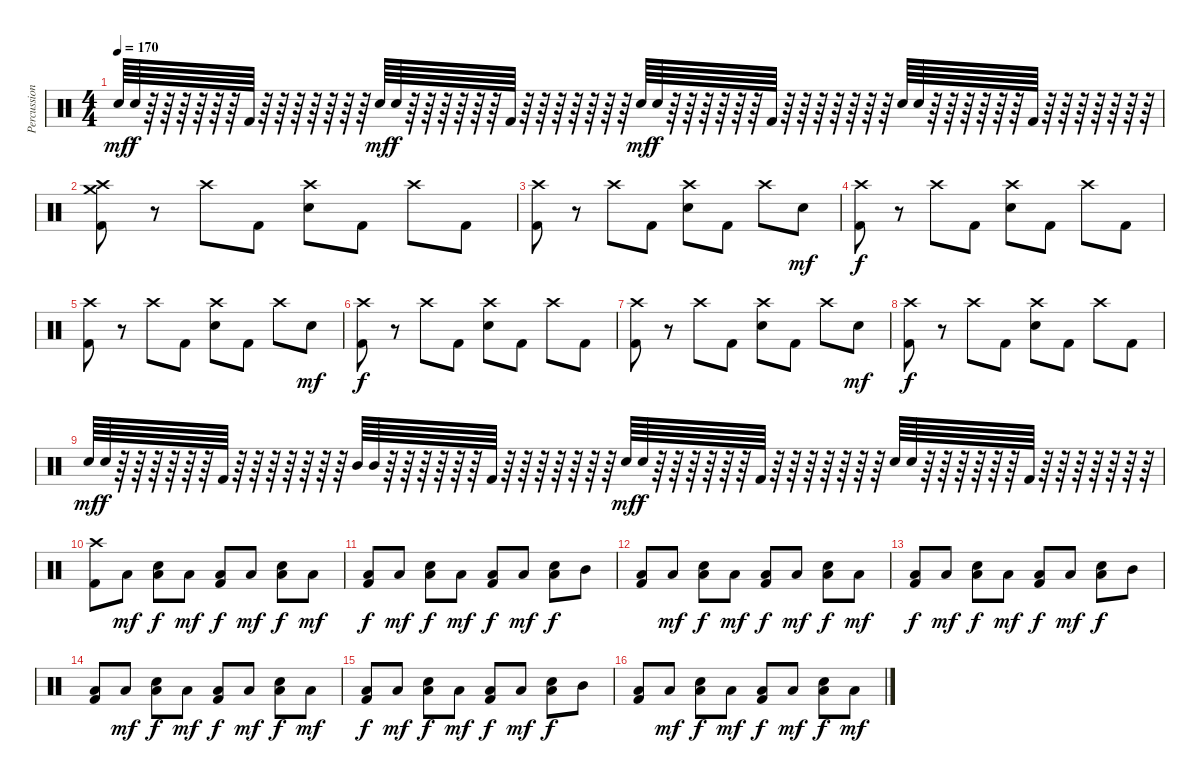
\track ("Percussions" "Percussion") {instrument percussion}
\staff {score}
\articulation defaults
\ts (4 4)
\tempo 170
\clef neutral
\ks c "Electric Snare (hit)".64{dy mf} "Electric Snare (hit)".64{dy f}
r.64 r.64 r.64 r.64 r.64 r.64 "Kick (hit) 2".64 r.64 r.64 r.64 r.64 r.64 r.64 r.64 "Electric Snare (hit)".64{dy mf} "Electric Snare (hit)".64{dy f} r.64 r.64 r.64 r.64 r.64 r.64 "Kick (hit) 2".64 r.64 r.64 r.64 r.64 r.64 r.64 r.64 "Electric Snare (hit)".64{dy mf} "Electric Snare (hit)".64{dy f} r.64 r.64 r.64 r.64 r.64 r.64 "Kick (hit) 2".64 r.64 r.64 r.64 r.64 r.64 r.64 r.64 "Electric Snare (hit)".64 "Electric Snare (hit)".64 r.64 r.64 r.64 r.64 r.64 r.64 "Kick (hit) 2".64 r.64 r.64 r.64 r.64 r.64 r.64 r.64 |
("Kick (hit) 2" "Crash medium (hit)" "Crash high (hit)").8 r.8 "Crash high (hit)".8 "Kick (hit) 2".8 ("Electric Snare (hit)" "Crash high (hit)").8 "Kick (hit) 2".8 "Crash high (hit)".8 "Kick (hit) 2".8 |
("Kick (hit) 2" "Crash high (hit)").8 r.8 "Crash high (hit)".8 "Kick (hit) 2".8 ("Electric Snare (hit)" "Crash high (hit)").8 "Kick (hit) 2".8 "Crash high (hit)".8 "Electric Snare (hit)".8{dy mf} |
("Kick (hit) 2" "Crash high (hit)").8{dy f} r.8 "Crash high (hit)".8 "Kick (hit) 2".8 ("Electric Snare (hit)" "Crash high (hit)").8 "Kick (hit) 2".8 "Crash high (hit)".8 "Kick (hit) 2".8 |
("Kick (hit) 2" "Crash high (hit)").8 r.8 "Crash high (hit)".8 "Kick (hit) 2".8 ("Electric Snare (hit)" "Crash high (hit)").8 "Kick (hit) 2".8 "Crash high (hit)".8 "Electric Snare (hit)".8{dy mf} |
("Kick (hit) 2" "Crash high (hit)").8{dy f} r.8 "Crash high (hit)".8 "Kick (hit) 2".8 ("Electric Snare (hit)" "Crash high (hit)").8 "Kick (hit) 2".8 "Crash high (hit)".8 "Kick (hit) 2".8 |
("Kick (hit) 2" "Crash high (hit)").8 r.8 "Crash high (hit)".8 "Kick (hit) 2".8 ("Electric Snare (hit)" "Crash high (hit)").8 "Kick (hit) 2".8 "Crash high (hit)".8 "Electric Snare (hit)".8{dy mf} |
("Kick (hit) 2" "Crash high (hit)").8{dy f} r.8 "Crash high (hit)".8 "Kick (hit) 2".8 ("Electric Snare (hit)" "Crash high (hit)").8 "Kick (hit) 2".8 "Crash high (hit)".8 "Kick (hit) 2".8 |
"Electric Snare (hit)".64{dy mf} "Electric Snare (hit)".64{dy f} r.64 r.64 r.64 r.64 r.64 r.64 "Kick (hit) 2".64 r.64 r.64 r.64 r.64 r.64 r.64 r.64 "Mid Tom (hit)".64 "Mid Tom (hit)".64 r.64 r.64 r.64 r.64 r.64 r.64 "Kick (hit) 2".64 r.64 r.64 r.64 r.64 r.64 r.64 r.64 "Electric Snare (hit)".64{dy mf} "Electric Snare (hit)".64{dy f} r.64 r.64 r.64 r.64 r.64 r.64 "Kick (hit) 2".64 r.64 r.64 r.64 r.64 r.64 r.64 r.64 "Electric Snare (hit)".64 "Electric Snare (hit)".64 r.64 r.64 r.64 r.64 r.64 r.64 "Kick (hit) 2".64 r.64 r.64 r.64 r.64 r.64 r.64 r.64 |
("Kick (hit) 2" "Crash high (hit)").8 "Low Floor Tom (hit)".8{dy mf} ("Electric Snare (hit)" "Low Floor Tom (hit)").8{dy f} "Low Floor Tom (hit)".8{dy mf} ("Kick (hit) 2" "Low Floor Tom (hit)").8{dy f} "Low Floor Tom (hit)".8{dy mf} ("Electric Snare (hit)" "Low Floor Tom (hit)").8{dy f} "Low Floor Tom (hit)".8{dy mf} |
("Kick (hit) 2" "Low Floor Tom (hit)").8{dy f} "Low Floor Tom (hit)".8{dy mf} ("Electric Snare (hit)" "Low Floor Tom (hit)").8{dy f} "Low Floor Tom (hit)".8{dy mf} ("Kick (hit) 2" "Low Floor Tom (hit)").8{dy f} "Low Floor Tom (hit)".8{dy mf} ("Electric Snare (hit)" "Low Floor Tom (hit)").8{dy f} "Mid Tom (hit)".8 |
("Kick (hit) 2" "Low Floor Tom (hit)").8 "Low Floor Tom (hit)".8{dy mf} ("Electric Snare (hit)" "Low Floor Tom (hit)").8{dy f} "Low Floor Tom (hit)".8{dy mf} ("Kick (hit) 2" "Low Floor Tom (hit)").8{dy f} "Low Floor Tom (hit)".8{dy mf} ("Electric Snare (hit)" "Low Floor Tom (hit)").8{dy f} "Low Floor Tom (hit)".8{dy mf} |
("Kick (hit) 2" "Low Floor Tom (hit)").8{dy f} "Low Floor Tom (hit)".8{dy mf} ("Electric Snare (hit)" "Low Floor Tom (hit)").8{dy f} "Low Floor Tom (hit)".8{dy mf} ("Kick (hit) 2" "Low Floor Tom (hit)").8{dy f} "Low Floor Tom (hit)".8{dy mf} ("Electric Snare (hit)" "Low Floor Tom (hit)").8{dy f} "Mid Tom (hit)".8 |
("Kick (hit) 2" "Low Floor Tom (hit)").8 "Low Floor Tom (hit)".8{dy mf} ("Electric Snare (hit)" "Low Floor Tom (hit)").8{dy f} "Low Floor Tom (hit)".8{dy mf} ("Kick (hit) 2" "Low Floor Tom (hit)").8{dy f} "Low Floor Tom (hit)".8{dy mf} ("Electric Snare (hit)" "Low Floor Tom (hit)").8{dy f} "Low Floor Tom (hit)".8{dy mf} |
("Kick (hit) 2" "Low Floor Tom (hit)").8{dy f} "Low Floor Tom (hit)".8{dy mf} ("Electric Snare (hit)" "Low Floor Tom (hit)").8{dy f} "Low Floor Tom (hit)".8{dy mf} ("Kick (hit) 2" "Low Floor Tom (hit)").8{dy f} "Low Floor Tom (hit)".8{dy mf} ("Electric Snare (hit)" "Low Floor Tom (hit)").8{dy f} "Mid Tom (hit)".8 |
("Kick (hit) 2" "Low Floor Tom (hit)").8 "Low Floor Tom (hit)".8{dy mf} ("Electric Snare (hit)" "Low Floor Tom (hit)").8{dy f} "Low Floor Tom (hit)".8{dy mf} ("Kick (hit) 2" "Low Floor Tom (hit)").8{dy f} "Low Floor Tom (hit)".8{dy mf} ("Electric Snare (hit)" "Low Floor Tom (hit)").8{dy f} "Low Floor Tom (hit)".8{dy mf}
